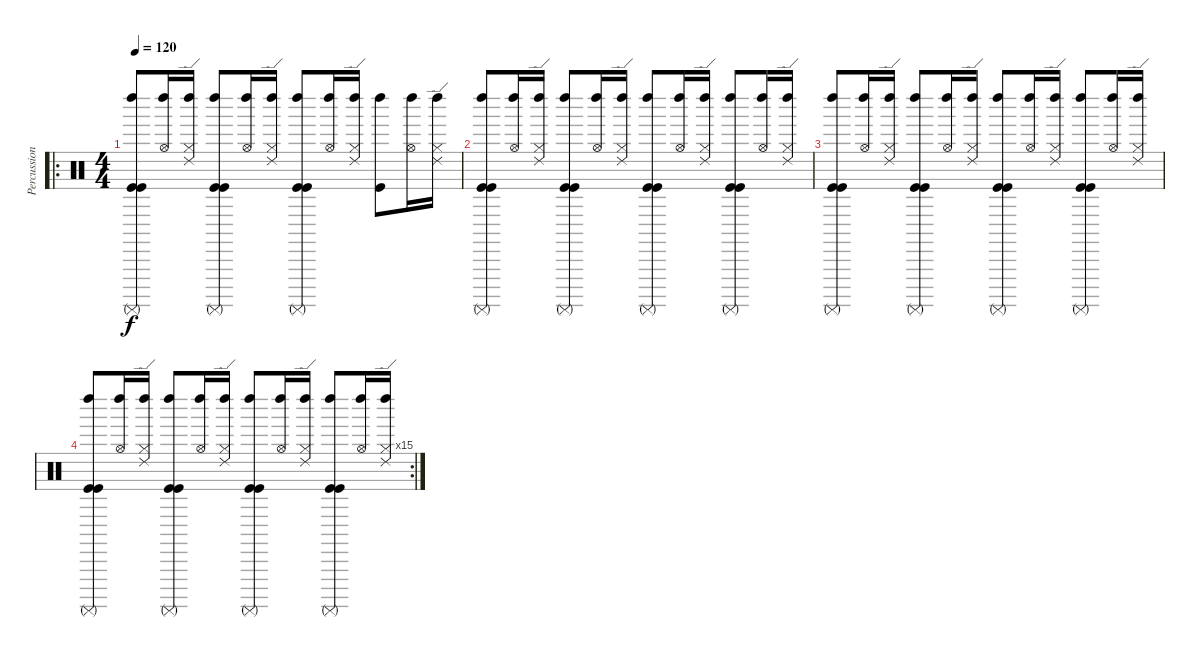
\track ("Percussions" "Percussion") {instrument percussion}
\staff {score}
\articulation defaults
\ro
\ts (4 4)
\tempo 120
\clef neutral
\ks c
("Kick (hit)" "Left Maraca (hit)" "Surdo (mute)" "Kick (hit)").8{dy f} ("Hi-Hat (open)" "Left Maraca (hit)").16 ("Hi-Hat (closed)" "Left Maraca (hit)" "Ride (edge) 2").16 ("Kick (hit)" "Left Maraca (hit)" "Surdo (mute)" "Kick (hit)").8 ("Hi-Hat (open)" "Left Maraca (hit)").16 ("Hi-Hat (closed)" "Left Maraca (hit)" "Ride (edge) 2").16 ("Kick (hit)" "Left Maraca (hit)" "Surdo (mute)" "Kick (hit)").8 ("Hi-Hat (open)" "Left Maraca (hit)").16 ("Hi-Hat (closed)" "Left Maraca (hit)" "Ride (edge) 2").16 ("Kick (hit)" "Left Maraca (hit)").8 ("Hi-Hat (open)" "Left Maraca (hit)").16 ("Hi-Hat (closed)" "Left Maraca (hit)" "Ride (edge) 2").16 |
("Kick (hit)" "Left Maraca (hit)" "Surdo (mute)" "Kick (hit)").8 ("Hi-Hat (open)" "Left Maraca (hit)").16 ("Hi-Hat (closed)" "Left Maraca (hit)" "Ride (edge) 2").16 ("Kick (hit)" "Left Maraca (hit)" "Surdo (mute)" "Kick (hit)").8 ("Hi-Hat (open)" "Left Maraca (hit)").16 ("Hi-Hat (closed)" "Left Maraca (hit)" "Ride (edge) 2").16 ("Kick (hit)" "Left Maraca (hit)" "Surdo (mute)" "Kick (hit)").8 ("Hi-Hat (open)" "Left Maraca (hit)").16 ("Hi-Hat (closed)" "Left Maraca (hit)" "Ride (edge) 2").16 ("Kick (hit)" "Left Maraca (hit)" "Surdo (mute)" "Kick (hit)").8 ("Hi-Hat (open)" "Left Maraca (hit)").16 ("Hi-Hat (closed)" "Left Maraca (hit)" "Ride (edge) 2").16 |
("Kick (hit)" "Left Maraca (hit)" "Surdo (mute)" "Kick (hit)").8 ("Hi-Hat (open)" "Left Maraca (hit)").16 ("Hi-Hat (closed)" "Left Maraca (hit)" "Ride (edge) 2").16 ("Kick (hit)" "Left Maraca (hit)" "Surdo (mute)" "Kick (hit)").8 ("Hi-Hat (open)" "Left Maraca (hit)").16 ("Hi-Hat (closed)" "Left Maraca (hit)" "Ride (edge) 2").16 ("Kick (hit)" "Left Maraca (hit)" "Surdo (mute)" "Kick (hit)").8 ("Hi-Hat (open)" "Left Maraca (hit)").16 ("Hi-Hat (closed)" "Left Maraca (hit)" "Ride (edge) 2").16 ("Kick (hit)" "Left Maraca (hit)" "Surdo (mute)" "Kick (hit)").8 ("Hi-Hat (open)" "Left Maraca (hit)").16 ("Hi-Hat (closed)" "Left Maraca (hit)" "Ride (edge) 2").16 |
\rc 15
("Kick (hit)" "Left Maraca (hit)" "Surdo (mute)" "Kick (hit)").8 ("Hi-Hat (open)" "Left Maraca (hit)").16 ("Hi-Hat (closed)" "Left Maraca (hit)" "Ride (edge) 2").16 ("Kick (hit)" "Left Maraca (hit)" "Surdo (mute)" "Kick (hit)").8 ("Hi-Hat (open)" "Left Maraca (hit)").16 ("Hi-Hat (closed)" "Left Maraca (hit)" "Ride (edge) 2").16 ("Kick (hit)" "Left Maraca (hit)" "Surdo (mute)" "Kick (hit)").8 ("Hi-Hat (open)" "Left Maraca (hit)").16 ("Hi-Hat (closed)" "Left Maraca (hit)" "Ride (edge) 2").16 ("Kick (hit)" "Left Maraca (hit)" "Surdo (mute)" "Kick (hit)").8 ("Hi-Hat (open)" "Left Maraca (hit)").16 ("Hi-Hat (closed)" "Left Maraca (hit)" "Ride (edge) 2").16
